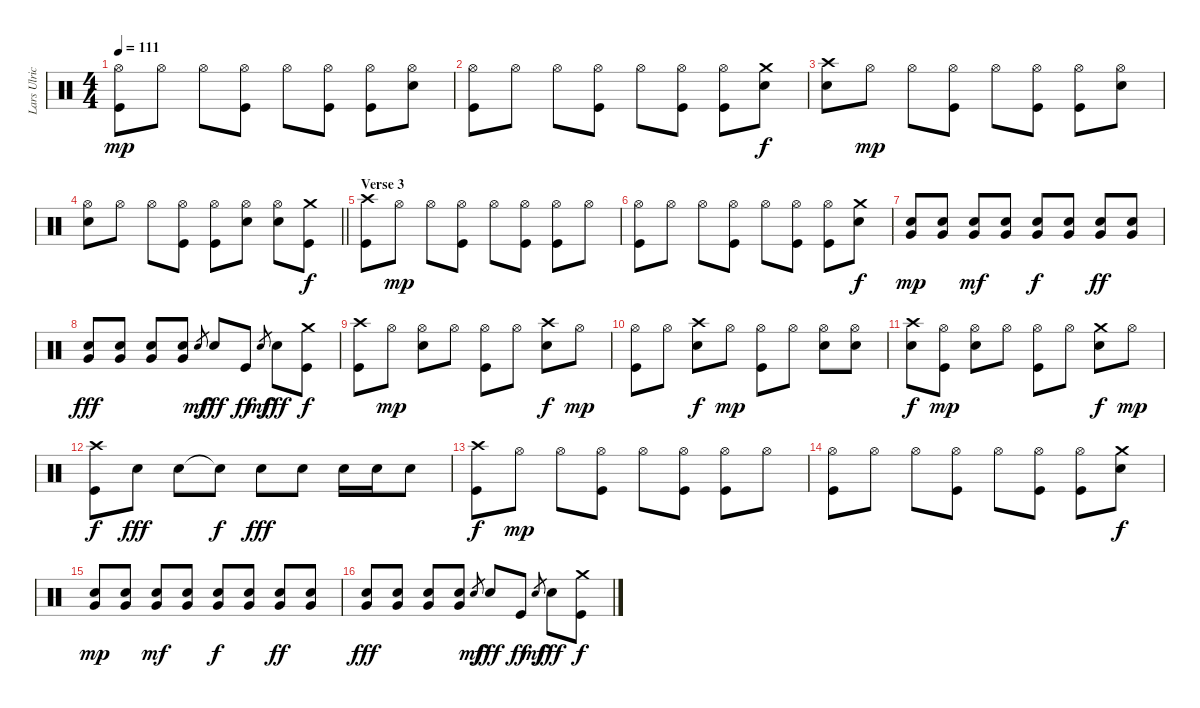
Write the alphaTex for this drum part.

\track ("Lars Ulrich (Drums)" "Lars Ulric") {instrument percussion}
\staff {score}
\articulation defaults
\ts (4 4)
\tempo 111
\clef neutral
\ks c
("Hi-Hat (open)" "Kick (hit)").8{dy mp} "Hi-Hat (open)".8 "Hi-Hat (open)".8 ("Hi-Hat (open)" "Kick (hit)").8 "Hi-Hat (open)".8 ("Hi-Hat (open)" "Kick (hit)").8 ("Hi-Hat (open)" "Kick (hit)").8 ("Hi-Hat (open)" "Snare (hit) 2").8 |
("Hi-Hat (open)" "Kick (hit)").8 "Hi-Hat (open)".8 "Hi-Hat (open)".8 ("Hi-Hat (open)" "Kick (hit)").8 "Hi-Hat (open)".8 ("Hi-Hat (open)" "Kick (hit)").8 ("Hi-Hat (open)" "Kick (hit)").8 ("Crash medium (hit)" "Snare (hit) 2").8{dy f} |
("Crash high (hit)" "Snare (hit) 2").8 "Hi-Hat (open)".8{dy mp} "Hi-Hat (open)".8 ("Hi-Hat (open)" "Kick (hit)").8 "Hi-Hat (open)".8 ("Hi-Hat (open)" "Kick (hit)").8 ("Hi-Hat (open)" "Kick (hit)").8 ("Hi-Hat (open)" "Snare (hit) 2").8 |
\barLineRight lightlight
("Hi-Hat (open)" "Snare (hit) 2").8 "Hi-Hat (open)".8 "Hi-Hat (open)".8 ("Hi-Hat (open)" "Kick (hit)").8 ("Hi-Hat (open)" "Kick (hit)").8 ("Hi-Hat (open)" "Snare (hit) 2").8 ("Hi-Hat (open)" "Snare (hit) 2").8 ("Crash medium (hit)" "Kick (hit)").8{dy f} |
\section ("" "Verse 3")
("Crash high (hit)" "Kick (hit)").8 "Hi-Hat (open)".8{dy mp} "Hi-Hat (open)".8 ("Hi-Hat (open)" "Kick (hit)").8 "Hi-Hat (open)".8 ("Hi-Hat (open)" "Kick (hit)").8 ("Hi-Hat (open)" "Kick (hit)").8 "Hi-Hat (open)".8 |
("Hi-Hat (open)" "Kick (hit)").8 "Hi-Hat (open)".8 "Hi-Hat (open)".8 ("Hi-Hat (open)" "Kick (hit)").8 "Hi-Hat (open)".8 ("Hi-Hat (open)" "Kick (hit)").8 ("Hi-Hat (open)" "Kick (hit)").8 ("Crash medium (hit)" "Snare (hit) 2").8{dy f} |
("Very Low Tom (hit)" "Snare (hit) 2").8{dy mp} ("Very Low Tom (hit)" "Snare (hit) 2").8 ("Very Low Tom (hit)" "Snare (hit) 2").8{dy mf} ("Very Low Tom (hit)" "Snare (hit) 2").8 ("Very Low Tom (hit)" "Snare (hit) 2").8{dy f} ("Very Low Tom (hit)" "Snare (hit) 2").8 ("Very Low Tom (hit)" "Snare (hit) 2").8{dy ff} ("Very Low Tom (hit)" "Snare (hit) 2").8 |
("Very Low Tom (hit)" "Snare (hit) 2").8{dy fff} ("Very Low Tom (hit)" "Snare (hit) 2").8 ("Very Low Tom (hit)" "Snare (hit) 2").8 ("Very Low Tom (hit)" "Snare (hit) 2").8 "Snare (hit)".8{gr dy mf} "Snare (hit) 2".8{dy fff} "Kick (hit)".8{dy ff} "Snare (hit)".8{gr dy mf} "Snare (hit) 2".8{dy fff} ("Crash medium (hit)" "Kick (hit)").8{dy f} |
("Crash high (hit)" "Kick (hit)").8 "Hi-Hat (open)".8{dy mp} ("Hi-Hat (open)" "Snare (hit) 2").8 "Hi-Hat (open)".8 ("Hi-Hat (open)" "Kick (hit)").8 "Hi-Hat (open)".8 ("Crash high (hit)" "Snare (hit) 2").8{dy f} "Hi-Hat (open)".8{dy mp} |
("Hi-Hat (open)" "Kick (hit)").8 "Hi-Hat (open)".8 ("Crash high (hit)" "Snare (hit) 2").8{dy f} "Hi-Hat (open)".8{dy mp} ("Hi-Hat (open)" "Kick (hit)").8 "Hi-Hat (open)".8 ("Hi-Hat (open)" "Snare (hit) 2").8 ("Hi-Hat (open)" "Snare (hit) 2").8 |
("Crash high (hit)" "Snare (hit) 2").8{dy f} ("Hi-Hat (open)" "Kick (hit)").8{dy mp} ("Hi-Hat (open)" "Snare (hit) 2").8 "Hi-Hat (open)".8 ("Hi-Hat (open)" "Kick (hit)").8 "Hi-Hat (open)".8 ("Crash medium (hit)" "Snare (hit) 2").8{dy f} "Hi-Hat (open)".8{dy mp} |
("Crash high (hit)" "Kick (hit)").8{dy f} "Snare (hit) 2".8{dy fff} "Snare (hit) 2".8 "Snare (hit) 2"{t}.8{dy f} "Snare (hit) 2".8{dy fff} "Snare (hit) 2".8 "Snare (hit) 2".16 "Snare (hit) 2".16 "Snare (hit) 2".8 |
("Crash high (hit)" "Kick (hit)").8{dy f} "Hi-Hat (open)".8{dy mp} "Hi-Hat (open)".8 ("Hi-Hat (open)" "Kick (hit)").8 "Hi-Hat (open)".8 ("Hi-Hat (open)" "Kick (hit)").8 ("Hi-Hat (open)" "Kick (hit)").8 "Hi-Hat (open)".8 |
("Hi-Hat (open)" "Kick (hit)").8 "Hi-Hat (open)".8 "Hi-Hat (open)".8 ("Hi-Hat (open)" "Kick (hit)").8 "Hi-Hat (open)".8 ("Hi-Hat (open)" "Kick (hit)").8 ("Hi-Hat (open)" "Kick (hit)").8 ("Crash medium (hit)" "Snare (hit) 2").8{dy f} |
("Very Low Tom (hit)" "Snare (hit) 2").8{dy mp} ("Very Low Tom (hit)" "Snare (hit) 2").8 ("Very Low Tom (hit)" "Snare (hit) 2").8{dy mf} ("Very Low Tom (hit)" "Snare (hit) 2").8 ("Very Low Tom (hit)" "Snare (hit) 2").8{dy f} ("Very Low Tom (hit)" "Snare (hit) 2").8 ("Very Low Tom (hit)" "Snare (hit) 2").8{dy ff} ("Very Low Tom (hit)" "Snare (hit) 2").8 |
("Very Low Tom (hit)" "Snare (hit) 2").8{dy fff} ("Very Low Tom (hit)" "Snare (hit) 2").8 ("Very Low Tom (hit)" "Snare (hit) 2").8 ("Very Low Tom (hit)" "Snare (hit) 2").8 "Snare (hit)".8{gr dy mf} "Snare (hit) 2".8{dy fff} "Kick (hit)".8{dy ff} "Snare (hit)".8{gr dy mf} "Snare (hit) 2".8{dy fff} ("Crash medium (hit)" "Kick (hit)").8{dy f}
